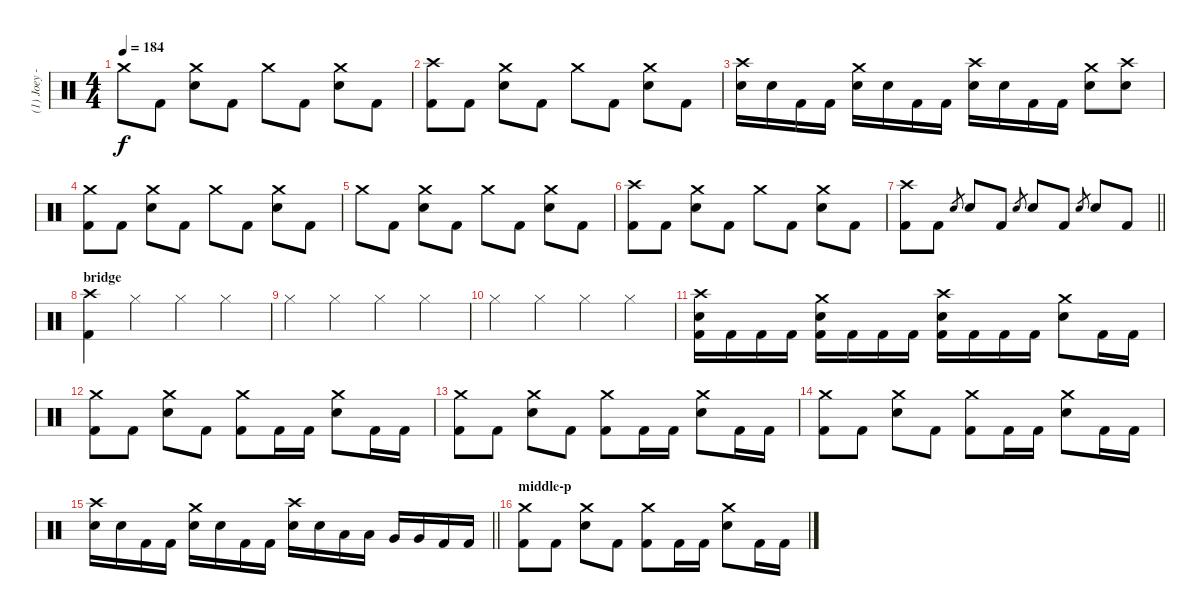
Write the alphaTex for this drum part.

\track ("(1) Joey - drums" "(1) Joey -") {instrument percussion}
\staff {score}
\articulation defaults
\ts (4 4)
\tempo 184
\clef neutral
\ks c "Crash medium (hit)".8{dy f} "Kick (hit) 2".8
("Crash medium (hit)" "Electric Snare (hit)").8 "Kick (hit) 2".8 "Crash medium (hit)".8 "Kick (hit) 2".8 ("Crash medium (hit)" "Electric Snare (hit)").8 "Kick (hit) 2".8 |
("Crash high (hit)" "Kick (hit) 2").8 "Kick (hit) 2".8 ("Crash medium (hit)" "Electric Snare (hit)").8 "Kick (hit) 2".8 "Crash medium (hit)".8 "Kick (hit) 2".8 ("Crash medium (hit)" "Electric Snare (hit)").8 "Kick (hit) 2".8 |
("Crash high (hit)" "Electric Snare (hit)").16 "Electric Snare (hit)".16 "Kick (hit) 2".16 "Kick (hit) 2".16 ("Crash medium (hit)" "Electric Snare (hit)").16 "Electric Snare (hit)".16 "Kick (hit) 2".16 "Kick (hit) 2".16 ("Crash high (hit)" "Electric Snare (hit)").16 "Electric Snare (hit)".16 "Kick (hit) 2".16 "Kick (hit) 2".16 ("Crash medium (hit)" "Electric Snare (hit)").8 ("Crash high (hit)" "Electric Snare (hit)").8 |
("Crash medium (hit)" "Kick (hit) 2").8 "Kick (hit) 2".8 ("Crash medium (hit)" "Electric Snare (hit)").8 "Kick (hit) 2".8 "Crash medium (hit)".8 "Kick (hit) 2".8 ("Crash medium (hit)" "Electric Snare (hit)").8 "Kick (hit) 2".8 |
"Crash medium (hit)".8 "Kick (hit) 2".8 ("Crash medium (hit)" "Electric Snare (hit)").8 "Kick (hit) 2".8 "Crash medium (hit)".8 "Kick (hit) 2".8 ("Crash medium (hit)" "Electric Snare (hit)").8 "Kick (hit) 2".8 |
("Crash high (hit)" "Kick (hit) 2").8 "Kick (hit) 2".8 ("Crash medium (hit)" "Electric Snare (hit)").8 "Kick (hit) 2".8 "Crash medium (hit)".8 "Kick (hit) 2".8 ("Crash medium (hit)" "Electric Snare (hit)").8 "Kick (hit) 2".8 |
\barLineRight lightlight
("Crash high (hit)" "Kick (hit) 2").8 "Kick (hit) 2".8 "Electric Snare (hit)".8{gr} "Electric Snare (hit)".8 "Kick (hit) 2".8 "Electric Snare (hit)".8{gr} "Electric Snare (hit)".8 "Kick (hit) 2".8 "Electric Snare (hit)".8{gr} "Electric Snare (hit)".8 "Kick (hit) 2".8 |
\section ("" "bridge")
("Crash high (hit)" "Kick (hit) 2").4 "Hi-Hat (closed)".4 "Hi-Hat (closed)".4 "Hi-Hat (closed)".4 |
"Hi-Hat (closed)".4 "Hi-Hat (closed)".4 "Hi-Hat (closed)".4 "Hi-Hat (closed)".4 |
"Hi-Hat (closed)".4 "Hi-Hat (closed)".4 "Hi-Hat (closed)".4 "Hi-Hat (closed)".4 |
("Crash high (hit)" "Electric Snare (hit)" "Kick (hit) 2").16 "Kick (hit) 2".16 "Kick (hit) 2".16 "Kick (hit) 2".16 ("Crash medium (hit)" "Electric Snare (hit)" "Kick (hit) 2").16 "Kick (hit) 2".16 "Kick (hit) 2".16 "Kick (hit) 2".16 ("Crash high (hit)" "Electric Snare (hit)" "Kick (hit) 2").16 "Kick (hit) 2".16 "Kick (hit) 2".16 "Kick (hit) 2".16 ("Crash medium (hit)" "Electric Snare (hit)").8 "Kick (hit) 2".16 "Kick (hit) 2".16 |
("Crash medium (hit)" "Kick (hit) 2").8 "Kick (hit) 2".8 ("Crash medium (hit)" "Electric Snare (hit)").8 "Kick (hit) 2".8 ("Crash medium (hit)" "Kick (hit) 2").8 "Kick (hit) 2".16 "Kick (hit) 2".16 ("Crash medium (hit)" "Electric Snare (hit)").8 "Kick (hit) 2".16 "Kick (hit) 2".16 |
("Crash medium (hit)" "Kick (hit) 2").8 "Kick (hit) 2".8 ("Crash medium (hit)" "Electric Snare (hit)").8 "Kick (hit) 2".8 ("Crash medium (hit)" "Kick (hit) 2").8 "Kick (hit) 2".16 "Kick (hit) 2".16 ("Crash medium (hit)" "Electric Snare (hit)").8 "Kick (hit) 2".16 "Kick (hit) 2".16 |
("Crash medium (hit)" "Kick (hit) 2").8 "Kick (hit) 2".8 ("Crash medium (hit)" "Electric Snare (hit)").8 "Kick (hit) 2".8 ("Crash medium (hit)" "Kick (hit) 2").8 "Kick (hit) 2".16 "Kick (hit) 2".16 ("Crash medium (hit)" "Electric Snare (hit)").8 "Kick (hit) 2".16 "Kick (hit) 2".16 |
\barLineRight lightlight
("Crash high (hit)" "Electric Snare (hit)").16 "Electric Snare (hit)".16 "Kick (hit) 2".16 "Kick (hit) 2".16 ("Crash medium (hit)" "Electric Snare (hit)").16 "Electric Snare (hit)".16 "Kick (hit) 2".16 "Kick (hit) 2".16 ("Crash high (hit)" "Electric Snare (hit)").16 "Electric Snare (hit)".16 "Low Tom (hit)".16 "Low Tom (hit)".16 "Very Low Tom (hit)".16 "Very Low Tom (hit)".16 "Kick (hit) 2".16 "Kick (hit) 2".16 |
\section ("" "middle-p")
("Crash medium (hit)" "Kick (hit) 2").8 "Kick (hit) 2".8 ("Crash medium (hit)" "Electric Snare (hit)").8 "Kick (hit) 2".8 ("Crash medium (hit)" "Kick (hit) 2").8 "Kick (hit) 2".16 "Kick (hit) 2".16 ("Crash medium (hit)" "Electric Snare (hit)").8 "Kick (hit) 2".16 "Kick (hit) 2".16
